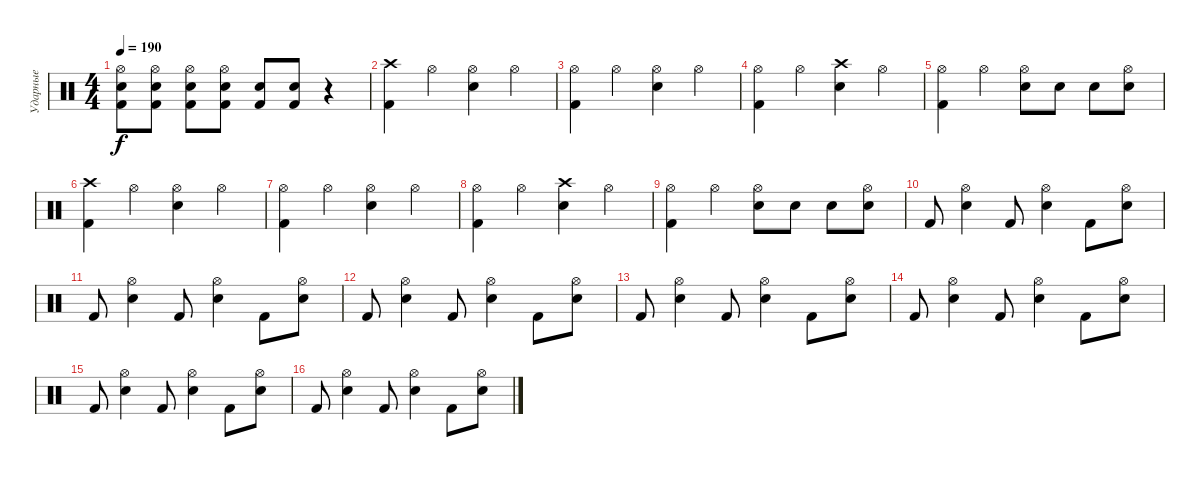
\track ("Ударные" "Ударные") {instrument percussion}
\staff {score}
\articulation defaults
\ts (4 4)
\tempo 190
\clef neutral
\ks c
("Hi-Hat (open)" "Kick (hit) 2" "Electric Snare (hit)").8{dy f} ("Hi-Hat (open)" "Kick (hit) 2" "Electric Snare (hit)").8 ("Hi-Hat (open)" "Kick (hit) 2" "Electric Snare (hit)").8 ("Hi-Hat (open)" "Kick (hit) 2" "Electric Snare (hit)").8 ("Kick (hit) 2" "Electric Snare (hit)").8 ("Kick (hit) 2" "Electric Snare (hit)").8 r.4 |
("Crash high (hit)" "Kick (hit) 2").4 "Hi-Hat (open)".4 ("Hi-Hat (open)" "Electric Snare (hit)").4 "Hi-Hat (open)".4 |
("Hi-Hat (open)" "Kick (hit) 2").4 "Hi-Hat (open)".4 ("Hi-Hat (open)" "Electric Snare (hit)").4 "Hi-Hat (open)".4 |
("Hi-Hat (open)" "Kick (hit) 2").4 "Hi-Hat (open)".4 ("Crash high (hit)" "Electric Snare (hit)").4 "Hi-Hat (open)".4 |
("Hi-Hat (open)" "Kick (hit) 2").4 "Hi-Hat (open)".4 ("Hi-Hat (open)" "Electric Snare (hit)").8 "Electric Snare (hit)".8 "Electric Snare (hit)".8 ("Hi-Hat (open)" "Electric Snare (hit)").8 |
("Crash high (hit)" "Kick (hit) 2").4 "Hi-Hat (open)".4 ("Hi-Hat (open)" "Electric Snare (hit)").4 "Hi-Hat (open)".4 |
("Hi-Hat (open)" "Kick (hit) 2").4 "Hi-Hat (open)".4 ("Hi-Hat (open)" "Electric Snare (hit)").4 "Hi-Hat (open)".4 |
("Hi-Hat (open)" "Kick (hit) 2").4 "Hi-Hat (open)".4 ("Crash high (hit)" "Electric Snare (hit)").4 "Hi-Hat (open)".4 |
("Hi-Hat (open)" "Kick (hit) 2").4 "Hi-Hat (open)".4 ("Hi-Hat (open)" "Electric Snare (hit)").8 "Electric Snare (hit)".8 "Electric Snare (hit)".8 ("Hi-Hat (open)" "Electric Snare (hit)").8 |
"Kick (hit) 2".8 ("Hi-Hat (open)" "Electric Snare (hit)").4 "Kick (hit) 2".8 ("Hi-Hat (open)" "Electric Snare (hit)").4 "Kick (hit) 2".8 ("Hi-Hat (open)" "Electric Snare (hit)").8 |
"Kick (hit) 2".8 ("Hi-Hat (open)" "Electric Snare (hit)").4 "Kick (hit) 2".8 ("Hi-Hat (open)" "Electric Snare (hit)").4 "Kick (hit) 2".8 ("Hi-Hat (open)" "Electric Snare (hit)").8 |
"Kick (hit) 2".8 ("Hi-Hat (open)" "Electric Snare (hit)").4 "Kick (hit) 2".8 ("Hi-Hat (open)" "Electric Snare (hit)").4 "Kick (hit) 2".8 ("Hi-Hat (open)" "Electric Snare (hit)").8 |
"Kick (hit) 2".8 ("Hi-Hat (open)" "Electric Snare (hit)").4 "Kick (hit) 2".8 ("Hi-Hat (open)" "Electric Snare (hit)").4 "Kick (hit) 2".8 ("Hi-Hat (open)" "Electric Snare (hit)").8 |
"Kick (hit) 2".8 ("Hi-Hat (open)" "Electric Snare (hit)").4 "Kick (hit) 2".8 ("Hi-Hat (open)" "Electric Snare (hit)").4 "Kick (hit) 2".8 ("Hi-Hat (open)" "Electric Snare (hit)").8 |
"Kick (hit) 2".8 ("Hi-Hat (open)" "Electric Snare (hit)").4 "Kick (hit) 2".8 ("Hi-Hat (open)" "Electric Snare (hit)").4 "Kick (hit) 2".8 ("Hi-Hat (open)" "Electric Snare (hit)").8 |
"Kick (hit) 2".8 ("Hi-Hat (open)" "Electric Snare (hit)").4 "Kick (hit) 2".8 ("Hi-Hat (open)" "Electric Snare (hit)").4 "Kick (hit) 2".8 ("Hi-Hat (open)" "Electric Snare (hit)").8
